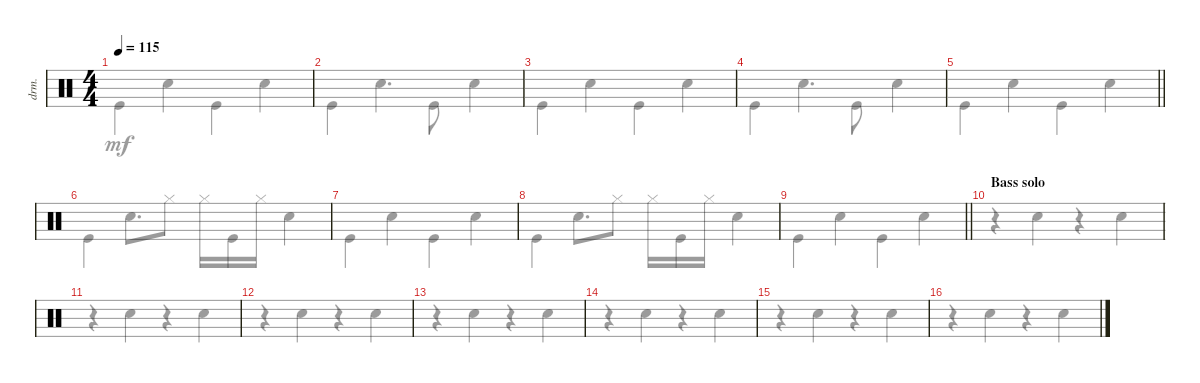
\defaultSystemsLayout 4
\bracketExtendMode groupsimilarinstruments
\otherSystemsTrackNameOrientation horizontal
\chordDiagramsInScore
\track ("Drumkit" "drm.") {instrument percussion}
\staff {score}
\articulation defaults
\voice
\ts (4 4)
\tempo 115
\clef neutral
\ks c
|
|
|
|
\barLineRight lightlight
|
|
|
|
\barLineRight lightlight
|
\section ("" "Bass solo")
|
|
|
|
|
|
\voice
\clef neutral
\ks c "Kick (hit)".4{dy mf} "Snare (hit) 2".4 "Kick (hit)".4 "Snare (hit) 2".4
|
"Kick (hit)".4 "Snare (hit) 2".4{d} "Kick (hit)".8 "Snare (hit) 2".4 |
"Kick (hit)".4 "Snare (hit) 2".4 "Kick (hit)".4 "Snare (hit) 2".4 |
"Kick (hit)".4 "Snare (hit) 2".4{d} "Kick (hit)".8 "Snare (hit) 2".4 |
\barLineRight lightlight "Kick (hit)".4 "Snare (hit) 2".4 "Kick (hit)".4 "Snare (hit) 2".4
|
"Kick (hit)".4 "Snare (hit) 2".8{d} "Hi-Hat (closed)".8 "Hi-Hat (closed)".16 "Kick (hit)".16 "Hi-Hat (closed)".16 "Snare (hit) 2".4 |
"Kick (hit)".4 "Snare (hit) 2".4 "Kick (hit)".4 "Snare (hit) 2".4 |
"Kick (hit)".4 "Snare (hit) 2".8{d} "Hi-Hat (closed)".8 "Hi-Hat (closed)".16 "Kick (hit)".16 "Hi-Hat (closed)".16 "Snare (hit) 2".4 |
\barLineRight lightlight "Kick (hit)".4 "Snare (hit) 2".4 "Kick (hit)".4 "Snare (hit) 2".4
|
r.4 "Snare (hit) 2".4 r.4 "Snare (hit) 2".4 |
r.4 "Snare (hit) 2".4 r.4 "Snare (hit) 2".4 |
r.4 "Snare (hit) 2".4 r.4 "Snare (hit) 2".4 |
r.4 "Snare (hit) 2".4 r.4 "Snare (hit) 2".4 |
r.4 "Snare (hit) 2".4 r.4 "Snare (hit) 2".4 |
r.4 "Snare (hit) 2".4 r.4 "Snare (hit) 2".4 |
r.4 "Snare (hit) 2".4 r.4 "Snare (hit) 2".4
